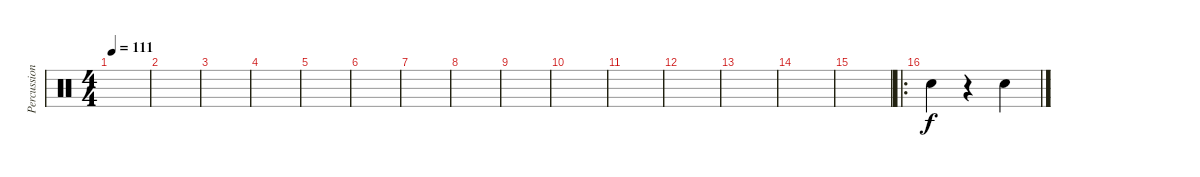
\track ("Percussion" "Percussion") {instrument percussion}
\staff {score}
\articulation defaults
\ts (4 4)
\tempo 111
\clef neutral
\ks c
|
|
|
|
|
|
|
|
|
|
|
|
|
|
|
\ro "Hand Clap (hit)".4
r.4 "Hand Clap (hit)".4
